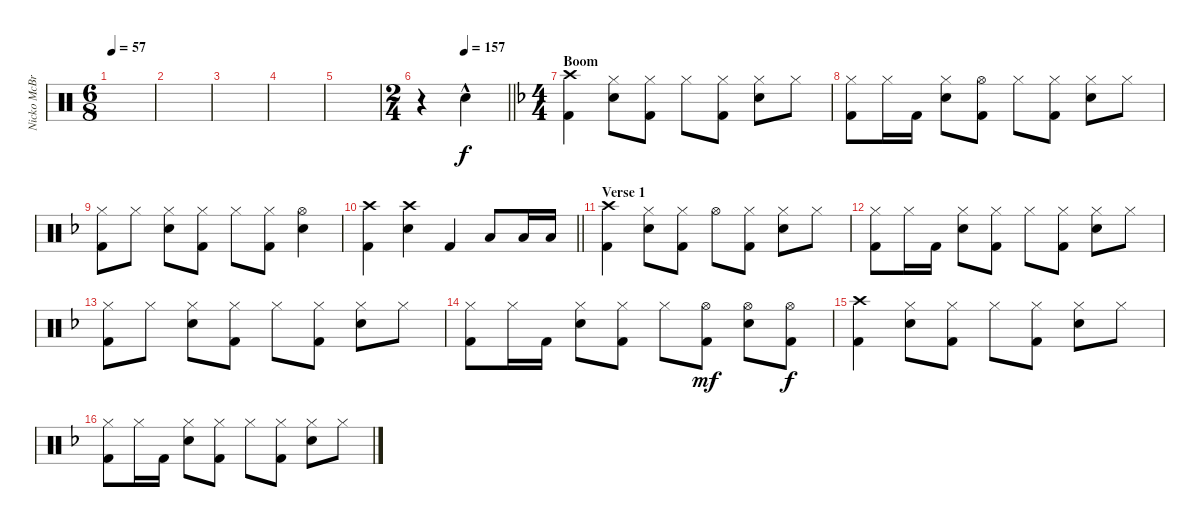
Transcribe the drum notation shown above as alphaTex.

\track ("Nicko McBrain" "Nicko McBr") {instrument percussion}
\staff {score}
\articulation defaults
\ts (6 8)
\tempo 57
\clef neutral
\ks c
|
|
|
|
|
\ts (2 4)
\tempo (157 0.5)
\barLineRight lightlight
r.4 "Electric Snare (hit)"{hac}.4 |
\ts (4 4)
\section ("" "Boom")
\ks f
("Crash high (hit)" "Kick (hit) 2").4{dy f} ("Hi-Hat (closed)" "Electric Snare (hit)").8 ("Hi-Hat (closed)" "Kick (hit) 2").8 "Hi-Hat (closed)".8 ("Hi-Hat (closed)" "Kick (hit) 2").8 ("Hi-Hat (closed)" "Electric Snare (hit)").8 "Hi-Hat (closed)".8 |
("Hi-Hat (closed)" "Kick (hit) 2").8 "Hi-Hat (closed)".16 "Kick (hit) 2".16 ("Hi-Hat (closed)" "Electric Snare (hit)").8 ("Hi-Hat (open)" "Kick (hit) 2").8 "Hi-Hat (closed)".8 ("Hi-Hat (closed)" "Kick (hit) 2").8 ("Hi-Hat (closed)" "Electric Snare (hit)").8 "Hi-Hat (closed)".8 |
("Hi-Hat (closed)" "Kick (hit) 2").8 "Hi-Hat (closed)".8 ("Hi-Hat (closed)" "Electric Snare (hit)").8 ("Hi-Hat (closed)" "Kick (hit) 2").8 "Hi-Hat (closed)".8 ("Hi-Hat (closed)" "Kick (hit) 2").8 ("Hi-Hat (open)" "Electric Snare (hit)").4 |
\barLineRight lightlight
("Crash high (hit)" "Kick (hit) 2").4 ("Crash high (hit)" "Electric Snare (hit)").4 "Kick (hit) 2".4 "Low Tom (hit)".8 "Low Tom (hit)".16 "Low Tom (hit)".16 |
\section ("" "Verse 1")
("Crash high (hit)" "Kick (hit) 2").4 ("Hi-Hat (closed)" "Electric Snare (hit)").8 ("Hi-Hat (closed)" "Kick (hit) 2").8 "Hi-Hat (open)".8 ("Hi-Hat (closed)" "Kick (hit) 2").8 ("Hi-Hat (closed)" "Electric Snare (hit)").8 "Hi-Hat (closed)".8 |
("Hi-Hat (closed)" "Kick (hit) 2").8 "Hi-Hat (closed)".16 "Kick (hit) 2".16 ("Hi-Hat (closed)" "Electric Snare (hit)").8 ("Hi-Hat (closed)" "Kick (hit) 2").8 "Hi-Hat (closed)".8 ("Hi-Hat (closed)" "Kick (hit) 2").8 ("Hi-Hat (closed)" "Electric Snare (hit)").8 "Hi-Hat (closed)".8 |
("Hi-Hat (closed)" "Kick (hit) 2").8 "Hi-Hat (closed)".8 ("Hi-Hat (closed)" "Electric Snare (hit)").8 ("Hi-Hat (closed)" "Kick (hit) 2").8 "Hi-Hat (closed)".8 ("Hi-Hat (closed)" "Kick (hit) 2").8 ("Hi-Hat (closed)" "Electric Snare (hit)").8 "Hi-Hat (closed)".8 |
("Hi-Hat (closed)" "Kick (hit) 2").8 "Hi-Hat (closed)".16 "Kick (hit) 2".16 ("Hi-Hat (closed)" "Electric Snare (hit)").8 ("Hi-Hat (closed)" "Kick (hit) 2").8 "Hi-Hat (closed)".8 ("Hi-Hat (open)" "Kick (hit) 2").8{dy mf} ("Hi-Hat (open)" "Electric Snare (hit)").8 ("Hi-Hat (open)" "Kick (hit) 2").8{dy f} |
("Crash high (hit)" "Kick (hit) 2").4 ("Hi-Hat (closed)" "Electric Snare (hit)").8 ("Hi-Hat (closed)" "Kick (hit) 2").8 "Hi-Hat (closed)".8 ("Hi-Hat (closed)" "Kick (hit) 2").8 ("Hi-Hat (closed)" "Electric Snare (hit)").8 "Hi-Hat (closed)".8 |
("Hi-Hat (closed)" "Kick (hit) 2").8 "Hi-Hat (closed)".16 "Kick (hit) 2".16 ("Hi-Hat (closed)" "Electric Snare (hit)").8 ("Hi-Hat (closed)" "Kick (hit) 2").8 "Hi-Hat (closed)".8 ("Hi-Hat (closed)" "Kick (hit) 2").8 ("Hi-Hat (closed)" "Electric Snare (hit)").8 "Hi-Hat (closed)".8
